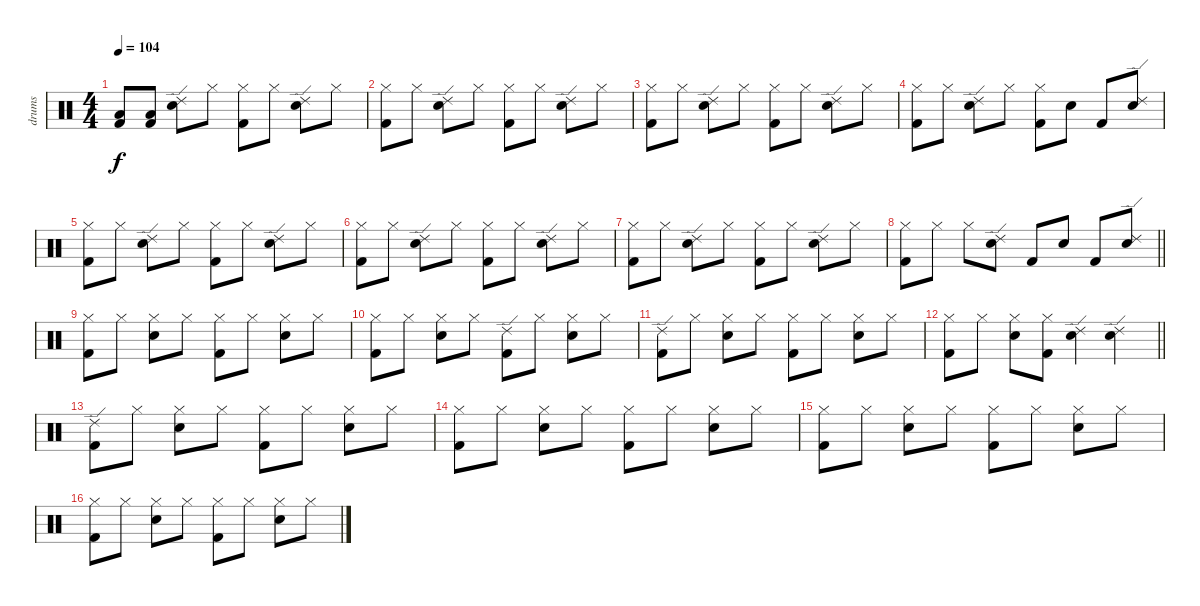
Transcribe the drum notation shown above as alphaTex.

\track ("drums" "drums") {instrument percussion}
\staff {score}
\articulation defaults
\ts (4 4)
\tempo 104
\clef neutral
\ks c
("Kick (hit) 2" "Low Floor Tom (hit)").8{dy f} ("Kick (hit) 2" "Low Floor Tom (hit)").8 ("Snare (hit) 2" "Ride (edge) 2").8 "Hi-Hat (closed)".8 ("Hi-Hat (closed)" "Kick (hit) 2").8 "Hi-Hat (closed)".8 ("Snare (hit) 2" "Ride (edge) 2").8 "Hi-Hat (closed)".8 |
("Hi-Hat (closed)" "Kick (hit) 2").8 "Hi-Hat (closed)".8 ("Snare (hit) 2" "Ride (edge) 2").8 "Hi-Hat (closed)".8 ("Hi-Hat (closed)" "Kick (hit) 2").8 "Hi-Hat (closed)".8 ("Snare (hit) 2" "Ride (edge) 2").8 "Hi-Hat (closed)".8 |
("Hi-Hat (closed)" "Kick (hit) 2").8 "Hi-Hat (closed)".8 ("Snare (hit) 2" "Ride (edge) 2").8 "Hi-Hat (closed)".8 ("Hi-Hat (closed)" "Kick (hit) 2").8 "Hi-Hat (closed)".8 ("Snare (hit) 2" "Ride (edge) 2").8 "Hi-Hat (closed)".8 |
("Hi-Hat (closed)" "Kick (hit) 2").8 "Hi-Hat (closed)".8 ("Snare (hit) 2" "Ride (edge) 2").8 "Hi-Hat (closed)".8 ("Hi-Hat (closed)" "Kick (hit) 2").8 "Snare (hit) 2".8 "Kick (hit) 2".8 ("Snare (hit) 2" "Ride (edge) 2").8 |
("Hi-Hat (closed)" "Kick (hit) 2").8 "Hi-Hat (closed)".8 ("Snare (hit) 2" "Ride (edge) 2").8 "Hi-Hat (closed)".8 ("Hi-Hat (closed)" "Kick (hit) 2").8 "Hi-Hat (closed)".8 ("Snare (hit) 2" "Ride (edge) 2").8 "Hi-Hat (closed)".8 |
("Hi-Hat (closed)" "Kick (hit) 2").8 "Hi-Hat (closed)".8 ("Snare (hit) 2" "Ride (edge) 2").8 "Hi-Hat (closed)".8 ("Hi-Hat (closed)" "Kick (hit) 2").8 "Hi-Hat (closed)".8 ("Snare (hit) 2" "Ride (edge) 2").8 "Hi-Hat (closed)".8 |
("Hi-Hat (closed)" "Kick (hit) 2").8 "Hi-Hat (closed)".8 ("Snare (hit) 2" "Ride (edge) 2").8 "Hi-Hat (closed)".8 ("Hi-Hat (closed)" "Kick (hit) 2").8 "Hi-Hat (closed)".8 ("Snare (hit) 2" "Ride (edge) 2").8 "Hi-Hat (closed)".8 |
\barLineRight lightlight
("Hi-Hat (closed)" "Kick (hit) 2").8 "Hi-Hat (closed)".8 "Hi-Hat (closed)".8 ("Snare (hit) 2" "Ride (edge) 2").8 "Kick (hit) 2".8 "Snare (hit) 2".8 "Kick (hit) 2".8 ("Snare (hit) 2" "Ride (edge) 2").8 |
("Hi-Hat (closed)" "Kick (hit) 2").8 "Hi-Hat (closed)".8 ("Hi-Hat (closed)" "Snare (hit) 2").8 "Hi-Hat (closed)".8 ("Hi-Hat (closed)" "Kick (hit) 2").8 "Hi-Hat (closed)".8 ("Hi-Hat (closed)" "Snare (hit) 2").8 "Hi-Hat (closed)".8 |
("Hi-Hat (closed)" "Kick (hit) 2").8 "Hi-Hat (closed)".8 ("Hi-Hat (closed)" "Snare (hit) 2").8 "Hi-Hat (closed)".8 ("Kick (hit) 2" "Ride (edge) 2").8 "Hi-Hat (closed)".8 ("Hi-Hat (closed)" "Snare (hit) 2").8 "Hi-Hat (closed)".8 |
("Kick (hit) 2" "Ride (edge) 2").8 "Hi-Hat (closed)".8 ("Hi-Hat (closed)" "Snare (hit) 2").8 "Hi-Hat (closed)".8 ("Hi-Hat (closed)" "Kick (hit) 2").8 "Hi-Hat (closed)".8 ("Hi-Hat (closed)" "Snare (hit) 2").8 "Hi-Hat (closed)".8 |
\barLineRight lightlight
("Hi-Hat (closed)" "Kick (hit) 2").8 "Hi-Hat (closed)".8 ("Hi-Hat (closed)" "Snare (hit) 2").8 ("Hi-Hat (closed)" "Kick (hit) 2").8 ("Snare (hit) 2" "Ride (edge) 2").4 ("Snare (hit) 2" "Ride (edge) 2").4 |
("Kick (hit) 2" "Ride (edge) 2").8 "Hi-Hat (closed)".8 ("Hi-Hat (closed)" "Snare (hit) 2").8 "Hi-Hat (closed)".8 ("Hi-Hat (closed)" "Kick (hit) 2").8 "Hi-Hat (closed)".8 ("Hi-Hat (closed)" "Snare (hit) 2").8 "Hi-Hat (closed)".8 |
("Hi-Hat (closed)" "Kick (hit) 2").8 "Hi-Hat (closed)".8 ("Hi-Hat (closed)" "Snare (hit) 2").8 "Hi-Hat (closed)".8 ("Hi-Hat (closed)" "Kick (hit) 2").8 "Hi-Hat (closed)".8 ("Hi-Hat (closed)" "Snare (hit) 2").8 "Hi-Hat (closed)".8 |
("Hi-Hat (closed)" "Kick (hit) 2").8 "Hi-Hat (closed)".8 ("Hi-Hat (closed)" "Snare (hit) 2").8 "Hi-Hat (closed)".8 ("Hi-Hat (closed)" "Kick (hit) 2").8 "Hi-Hat (closed)".8 ("Hi-Hat (closed)" "Snare (hit) 2").8 "Hi-Hat (closed)".8 |
("Hi-Hat (closed)" "Kick (hit) 2").8 "Hi-Hat (closed)".8 ("Hi-Hat (closed)" "Snare (hit) 2").8 "Hi-Hat (closed)".8 ("Hi-Hat (closed)" "Kick (hit) 2").8 "Hi-Hat (closed)".8 ("Hi-Hat (closed)" "Snare (hit) 2").8 "Hi-Hat (closed)".8
